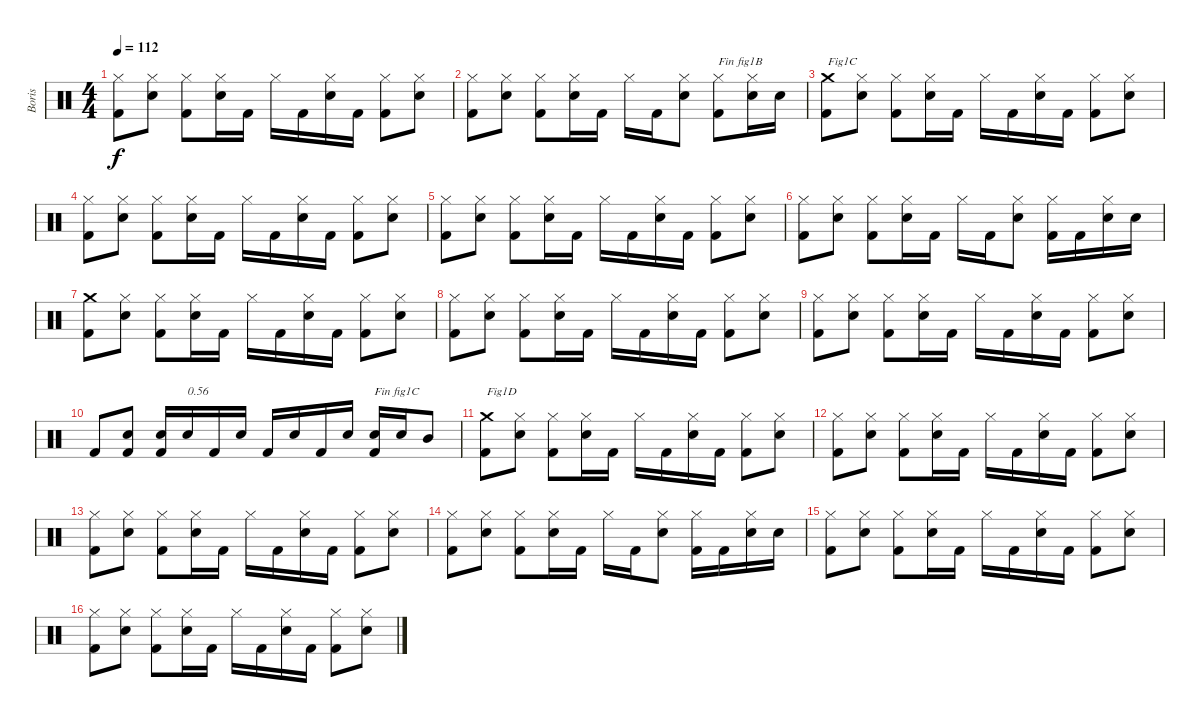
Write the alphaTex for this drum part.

\track ("Boris" "Boris") {instrument percussion}
\staff {score}
\articulation defaults
\ts (4 4)
\tempo 112
\clef neutral
\ks c
("Kick (hit) 2" "Hi-Hat (closed)").8{dy f} ("Electric Snare (hit)" "Hi-Hat (closed)").8 ("Kick (hit) 2" "Hi-Hat (closed)").8 ("Electric Snare (hit)" "Hi-Hat (closed)").16 "Kick (hit) 2".16 "Hi-Hat (closed)".16 "Kick (hit) 2".16 ("Electric Snare (hit)" "Hi-Hat (closed)").16 "Kick (hit) 2".16 ("Kick (hit) 2" "Hi-Hat (closed)").8 ("Electric Snare (hit)" "Hi-Hat (closed)").8 |
("Kick (hit) 2" "Hi-Hat (closed)").8 ("Electric Snare (hit)" "Hi-Hat (closed)").8 ("Kick (hit) 2" "Hi-Hat (closed)").8 ("Electric Snare (hit)" "Hi-Hat (closed)").16 "Kick (hit) 2".16 "Hi-Hat (closed)".16 "Kick (hit) 2".16 ("Electric Snare (hit)" "Hi-Hat (closed)").8 ("Kick (hit) 2" "Hi-Hat (closed)").8{txt "Fin fig1B"} ("Electric Snare (hit)" "Hi-Hat (closed)").16 "Electric Snare (hit)".16 |
("Kick (hit) 2" "Crash medium (hit)").8{txt "Fig1C"} ("Electric Snare (hit)" "Hi-Hat (closed)").8 ("Kick (hit) 2" "Hi-Hat (closed)").8 ("Electric Snare (hit)" "Hi-Hat (closed)").16 "Kick (hit) 2".16 "Hi-Hat (closed)".16 "Kick (hit) 2".16 ("Electric Snare (hit)" "Hi-Hat (closed)").16 "Kick (hit) 2".16 ("Kick (hit) 2" "Hi-Hat (closed)").8 ("Electric Snare (hit)" "Hi-Hat (closed)").8 |
("Kick (hit) 2" "Hi-Hat (closed)").8 ("Electric Snare (hit)" "Hi-Hat (closed)").8 ("Kick (hit) 2" "Hi-Hat (closed)").8 ("Electric Snare (hit)" "Hi-Hat (closed)").16 "Kick (hit) 2".16 "Hi-Hat (closed)".16 "Kick (hit) 2".16 ("Electric Snare (hit)" "Hi-Hat (closed)").16 "Kick (hit) 2".16 ("Kick (hit) 2" "Hi-Hat (closed)").8 ("Electric Snare (hit)" "Hi-Hat (closed)").8 |
("Kick (hit) 2" "Hi-Hat (closed)").8 ("Electric Snare (hit)" "Hi-Hat (closed)").8 ("Kick (hit) 2" "Hi-Hat (closed)").8 ("Electric Snare (hit)" "Hi-Hat (closed)").16 "Kick (hit) 2".16 "Hi-Hat (closed)".16 "Kick (hit) 2".16 ("Electric Snare (hit)" "Hi-Hat (closed)").16 "Kick (hit) 2".16 ("Kick (hit) 2" "Hi-Hat (closed)").8 ("Electric Snare (hit)" "Hi-Hat (closed)").8 |
("Kick (hit) 2" "Hi-Hat (closed)").8 ("Electric Snare (hit)" "Hi-Hat (closed)").8 ("Kick (hit) 2" "Hi-Hat (closed)").8 ("Electric Snare (hit)" "Hi-Hat (closed)").16 "Kick (hit) 2".16 "Hi-Hat (closed)".16 "Kick (hit) 2".16 ("Electric Snare (hit)" "Hi-Hat (closed)").8 ("Kick (hit) 2" "Hi-Hat (closed)").16 "Kick (hit) 2".16 ("Electric Snare (hit)" "Hi-Hat (closed)").16 "Electric Snare (hit)".16 |
("Kick (hit) 2" "Crash medium (hit)").8 ("Electric Snare (hit)" "Hi-Hat (closed)").8 ("Kick (hit) 2" "Hi-Hat (closed)").8 ("Electric Snare (hit)" "Hi-Hat (closed)").16 "Kick (hit) 2".16 "Hi-Hat (closed)".16 "Kick (hit) 2".16 ("Electric Snare (hit)" "Hi-Hat (closed)").16 "Kick (hit) 2".16 ("Kick (hit) 2" "Hi-Hat (closed)").8 ("Electric Snare (hit)" "Hi-Hat (closed)").8 |
("Kick (hit) 2" "Hi-Hat (closed)").8 ("Electric Snare (hit)" "Hi-Hat (closed)").8 ("Kick (hit) 2" "Hi-Hat (closed)").8 ("Electric Snare (hit)" "Hi-Hat (closed)").16 "Kick (hit) 2".16 "Hi-Hat (closed)".16 "Kick (hit) 2".16 ("Electric Snare (hit)" "Hi-Hat (closed)").16 "Kick (hit) 2".16 ("Kick (hit) 2" "Hi-Hat (closed)").8 ("Electric Snare (hit)" "Hi-Hat (closed)").8 |
("Kick (hit) 2" "Hi-Hat (closed)").8 ("Electric Snare (hit)" "Hi-Hat (closed)").8 ("Kick (hit) 2" "Hi-Hat (closed)").8 ("Electric Snare (hit)" "Hi-Hat (closed)").16 "Kick (hit) 2".16 "Hi-Hat (closed)".16 "Kick (hit) 2".16 ("Electric Snare (hit)" "Hi-Hat (closed)").16 "Kick (hit) 2".16 ("Kick (hit) 2" "Hi-Hat (closed)").8 ("Electric Snare (hit)" "Hi-Hat (closed)").8 |
"Kick (hit) 2".8 ("Kick (hit) 2" "Electric Snare (hit)").8 ("Kick (hit) 2" "Electric Snare (hit)").16 "Electric Snare (hit)".16{txt "0.56"} "Kick (hit) 2".16 "Electric Snare (hit)".16 "Kick (hit) 2".16 "Electric Snare (hit)".16 "Kick (hit) 2".16 "Electric Snare (hit)".16 ("Kick (hit) 2" "Electric Snare (hit)").16{txt "Fin fig1C"} "Electric Snare (hit)".16 "Mid Tom (hit)".8 |
("Kick (hit) 2" "Crash medium (hit)").8{txt "Fig1D"} ("Electric Snare (hit)" "Hi-Hat (closed)").8 ("Kick (hit) 2" "Hi-Hat (closed)").8 ("Electric Snare (hit)" "Hi-Hat (closed)").16 "Kick (hit) 2".16 "Hi-Hat (closed)".16 "Kick (hit) 2".16 ("Electric Snare (hit)" "Hi-Hat (closed)").16 "Kick (hit) 2".16 ("Kick (hit) 2" "Hi-Hat (closed)").8 ("Electric Snare (hit)" "Hi-Hat (closed)").8 |
("Kick (hit) 2" "Hi-Hat (closed)").8 ("Electric Snare (hit)" "Hi-Hat (closed)").8 ("Kick (hit) 2" "Hi-Hat (closed)").8 ("Electric Snare (hit)" "Hi-Hat (closed)").16 "Kick (hit) 2".16 "Hi-Hat (closed)".16 "Kick (hit) 2".16 ("Electric Snare (hit)" "Hi-Hat (closed)").16 "Kick (hit) 2".16 ("Kick (hit) 2" "Hi-Hat (closed)").8 ("Electric Snare (hit)" "Hi-Hat (closed)").8 |
("Kick (hit) 2" "Hi-Hat (closed)").8 ("Electric Snare (hit)" "Hi-Hat (closed)").8 ("Kick (hit) 2" "Hi-Hat (closed)").8 ("Electric Snare (hit)" "Hi-Hat (closed)").16 "Kick (hit) 2".16 "Hi-Hat (closed)".16 "Kick (hit) 2".16 ("Electric Snare (hit)" "Hi-Hat (closed)").16 "Kick (hit) 2".16 ("Kick (hit) 2" "Hi-Hat (closed)").8 ("Electric Snare (hit)" "Hi-Hat (closed)").8 |
("Kick (hit) 2" "Hi-Hat (closed)").8 ("Electric Snare (hit)" "Hi-Hat (closed)").8 ("Kick (hit) 2" "Hi-Hat (closed)").8 ("Electric Snare (hit)" "Hi-Hat (closed)").16 "Kick (hit) 2".16 "Hi-Hat (closed)".16 "Kick (hit) 2".16 ("Electric Snare (hit)" "Hi-Hat (closed)").8 ("Kick (hit) 2" "Hi-Hat (closed)").16 "Kick (hit) 2".16 ("Electric Snare (hit)" "Hi-Hat (closed)").16 "Electric Snare (hit)".16 |
("Kick (hit) 2" "Hi-Hat (closed)").8 ("Electric Snare (hit)" "Hi-Hat (closed)").8 ("Kick (hit) 2" "Hi-Hat (closed)").8 ("Electric Snare (hit)" "Hi-Hat (closed)").16 "Kick (hit) 2".16 "Hi-Hat (closed)".16 "Kick (hit) 2".16 ("Electric Snare (hit)" "Hi-Hat (closed)").16 "Kick (hit) 2".16 ("Kick (hit) 2" "Hi-Hat (closed)").8 ("Electric Snare (hit)" "Hi-Hat (closed)").8 |
("Kick (hit) 2" "Hi-Hat (closed)").8 ("Electric Snare (hit)" "Hi-Hat (closed)").8 ("Kick (hit) 2" "Hi-Hat (closed)").8 ("Electric Snare (hit)" "Hi-Hat (closed)").16 "Kick (hit) 2".16 "Hi-Hat (closed)".16 "Kick (hit) 2".16 ("Electric Snare (hit)" "Hi-Hat (closed)").16 "Kick (hit) 2".16 ("Kick (hit) 2" "Hi-Hat (closed)").8 ("Electric Snare (hit)" "Hi-Hat (closed)").8
